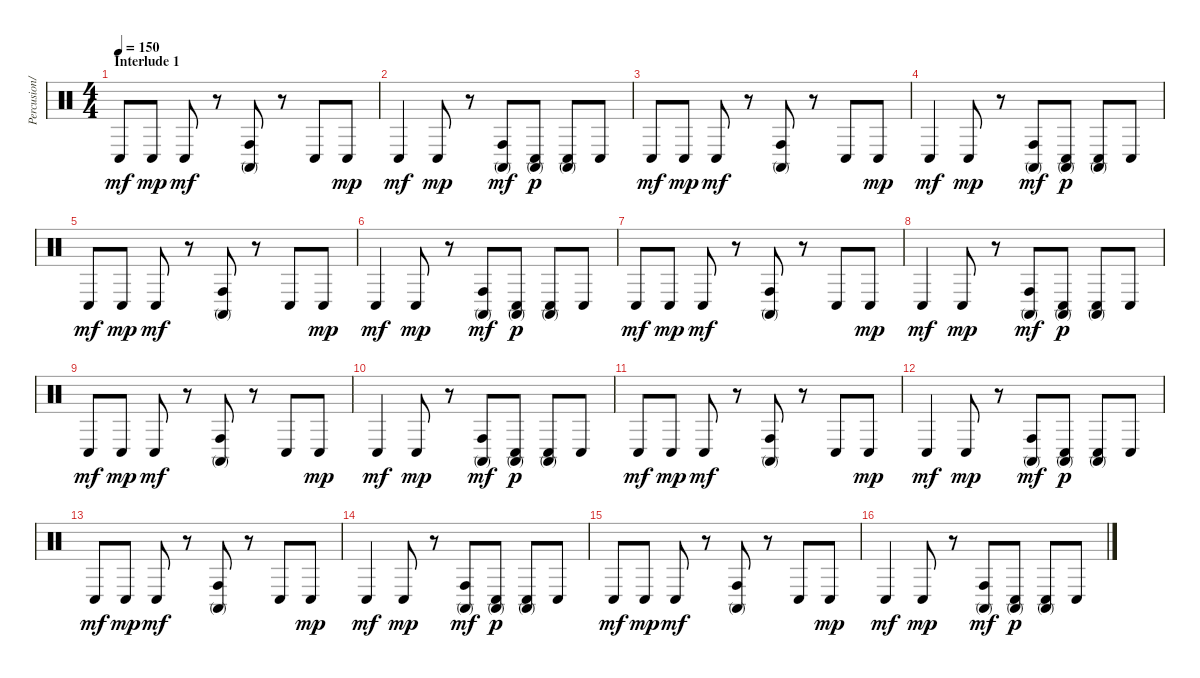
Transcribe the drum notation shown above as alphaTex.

\track ("Percusion/Drum" "Percusion/") {instrument percussion}
\staff {score}
\articulation defaults
\ts (4 4)
\section ("" "Interlude 1")
\tempo 150
\clef neutral
\ks c "Conga low (hit)".8{dy mf} "Conga low (hit)".8{dy mp} "Conga low (hit)".8{dy mf}
r.8 ("Conga high (mute)" "Conga high (hit)").8 r.8 "Conga low (hit)".8 "Conga low (hit)".8{dy mp} |
"Conga low (hit)".4{dy mf} "Conga low (hit)".8{dy mp} r.8 ("Conga high (mute)" "Conga high (hit)").8{dy mf} ("Conga low (hit)" "Conga high (mute)").8{dy p} ("Conga low (hit)" "Conga high (mute)").8 "Conga low (hit)".8 |
"Conga low (hit)".8{dy mf} "Conga low (hit)".8{dy mp} "Conga low (hit)".8{dy mf} r.8 ("Conga high (mute)" "Conga high (hit)").8 r.8 "Conga low (hit)".8 "Conga low (hit)".8{dy mp} |
"Conga low (hit)".4{dy mf} "Conga low (hit)".8{dy mp} r.8 ("Conga high (mute)" "Conga high (hit)").8{dy mf} ("Conga low (hit)" "Conga high (mute)").8{dy p} ("Conga low (hit)" "Conga high (mute)").8 "Conga low (hit)".8 |
"Conga low (hit)".8{dy mf} "Conga low (hit)".8{dy mp} "Conga low (hit)".8{dy mf} r.8 ("Conga high (mute)" "Conga high (hit)").8 r.8 "Conga low (hit)".8 "Conga low (hit)".8{dy mp} |
"Conga low (hit)".4{dy mf} "Conga low (hit)".8{dy mp} r.8 ("Conga high (mute)" "Conga high (hit)").8{dy mf} ("Conga low (hit)" "Conga high (mute)").8{dy p} ("Conga low (hit)" "Conga high (mute)").8 "Conga low (hit)".8 |
"Conga low (hit)".8{dy mf} "Conga low (hit)".8{dy mp} "Conga low (hit)".8{dy mf} r.8 ("Conga high (mute)" "Conga high (hit)").8 r.8 "Conga low (hit)".8 "Conga low (hit)".8{dy mp} |
"Conga low (hit)".4{dy mf} "Conga low (hit)".8{dy mp} r.8 ("Conga high (mute)" "Conga high (hit)").8{dy mf} ("Conga low (hit)" "Conga high (mute)").8{dy p} ("Conga low (hit)" "Conga high (mute)").8 "Conga low (hit)".8 |
"Conga low (hit)".8{dy mf} "Conga low (hit)".8{dy mp} "Conga low (hit)".8{dy mf} r.8 ("Conga high (mute)" "Conga high (hit)").8 r.8 "Conga low (hit)".8 "Conga low (hit)".8{dy mp} |
"Conga low (hit)".4{dy mf} "Conga low (hit)".8{dy mp} r.8 ("Conga high (mute)" "Conga high (hit)").8{dy mf} ("Conga low (hit)" "Conga high (mute)").8{dy p} ("Conga low (hit)" "Conga high (mute)").8 "Conga low (hit)".8 |
"Conga low (hit)".8{dy mf} "Conga low (hit)".8{dy mp} "Conga low (hit)".8{dy mf} r.8 ("Conga high (mute)" "Conga high (hit)").8 r.8 "Conga low (hit)".8 "Conga low (hit)".8{dy mp} |
"Conga low (hit)".4{dy mf} "Conga low (hit)".8{dy mp} r.8 ("Conga high (mute)" "Conga high (hit)").8{dy mf} ("Conga low (hit)" "Conga high (mute)").8{dy p} ("Conga low (hit)" "Conga high (mute)").8 "Conga low (hit)".8 |
"Conga low (hit)".8{dy mf} "Conga low (hit)".8{dy mp} "Conga low (hit)".8{dy mf} r.8 ("Conga high (mute)" "Conga high (hit)").8 r.8 "Conga low (hit)".8 "Conga low (hit)".8{dy mp} |
"Conga low (hit)".4{dy mf} "Conga low (hit)".8{dy mp} r.8 ("Conga high (mute)" "Conga high (hit)").8{dy mf} ("Conga low (hit)" "Conga high (mute)").8{dy p} ("Conga low (hit)" "Conga high (mute)").8 "Conga low (hit)".8 |
"Conga low (hit)".8{dy mf} "Conga low (hit)".8{dy mp} "Conga low (hit)".8{dy mf} r.8 ("Conga high (mute)" "Conga high (hit)").8 r.8 "Conga low (hit)".8 "Conga low (hit)".8{dy mp} |
"Conga low (hit)".4{dy mf} "Conga low (hit)".8{dy mp} r.8 ("Conga high (mute)" "Conga high (hit)").8{dy mf} ("Conga low (hit)" "Conga high (mute)").8{dy p} ("Conga low (hit)" "Conga high (mute)").8 "Conga low (hit)".8
